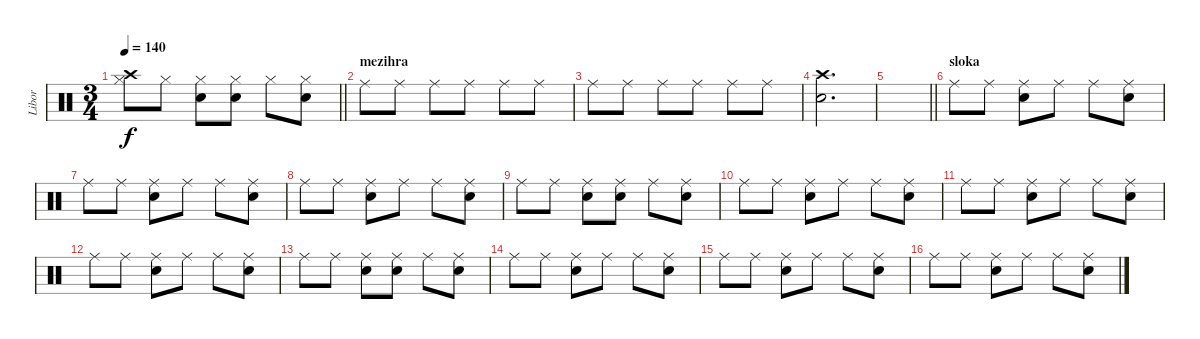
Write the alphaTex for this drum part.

\track ("Libor" "Libor") {instrument percussion}
\staff {score}
\articulation defaults
\ts (3 4)
\tempo 140
\clef neutral
\barLineRight lightlight
\ks c
("Crash high (hit)" "Hi-Hat (closed)").8{dy f} "Hi-Hat (closed)".8 ("Snare (hit) 2" "Hi-Hat (closed)").8 ("Snare (hit) 2" "Hi-Hat (closed)").8 "Hi-Hat (closed)".8 ("Snare (hit) 2" "Hi-Hat (closed)").8 |
\section ("" "mezihra")
"Ride (middle)".8 "Ride (middle)".8 "Ride (middle)".8 "Ride (middle)".8 "Ride (middle)".8 "Ride (middle)".8 |
"Ride (middle)".8 "Ride (middle)".8 "Ride (middle)".8 "Ride (middle)".8 "Ride (middle)".8 "Ride (middle)".8 |
("Crash high (hit)" "Snare (hit) 2").2{d} |
\barLineRight lightlight
|
\section ("" "sloka")
"Ride (middle)".8 "Ride (middle)".8 ("Ride (middle)" "Snare (hit) 2").8 "Ride (middle)".8 "Ride (middle)".8 ("Ride (middle)" "Snare (hit) 2").8 |
"Ride (middle)".8 "Ride (middle)".8 ("Ride (middle)" "Snare (hit) 2").8 "Ride (middle)".8 "Ride (middle)".8 ("Ride (middle)" "Snare (hit) 2").8 |
"Ride (middle)".8 "Ride (middle)".8 ("Ride (middle)" "Snare (hit) 2").8 "Ride (middle)".8 "Ride (middle)".8 ("Ride (middle)" "Snare (hit) 2").8 |
"Ride (middle)".8 "Ride (middle)".8 ("Ride (middle)" "Snare (hit) 2").8 ("Ride (middle)" "Snare (hit) 2").8 "Ride (middle)".8 ("Ride (middle)" "Snare (hit) 2").8 |
"Ride (middle)".8 "Ride (middle)".8 ("Ride (middle)" "Snare (hit) 2").8 "Ride (middle)".8 "Ride (middle)".8 ("Ride (middle)" "Snare (hit) 2").8 |
"Ride (middle)".8 "Ride (middle)".8 ("Ride (middle)" "Snare (hit) 2").8 "Ride (middle)".8 "Ride (middle)".8 ("Ride (middle)" "Snare (hit) 2").8 |
"Ride (middle)".8 "Ride (middle)".8 ("Ride (middle)" "Snare (hit) 2").8 "Ride (middle)".8 "Ride (middle)".8 ("Ride (middle)" "Snare (hit) 2").8 |
"Ride (middle)".8 "Ride (middle)".8 ("Ride (middle)" "Snare (hit) 2").8 ("Ride (middle)" "Snare (hit) 2").8 "Ride (middle)".8 ("Ride (middle)" "Snare (hit) 2").8 |
"Ride (middle)".8 "Ride (middle)".8 ("Ride (middle)" "Snare (hit) 2").8 "Ride (middle)".8 "Ride (middle)".8 ("Ride (middle)" "Snare (hit) 2").8 |
"Ride (middle)".8 "Ride (middle)".8 ("Ride (middle)" "Snare (hit) 2").8 "Ride (middle)".8 "Ride (middle)".8 ("Ride (middle)" "Snare (hit) 2").8 |
"Ride (middle)".8 "Ride (middle)".8 ("Ride (middle)" "Snare (hit) 2").8 "Ride (middle)".8 "Ride (middle)".8 ("Ride (middle)" "Snare (hit) 2").8
